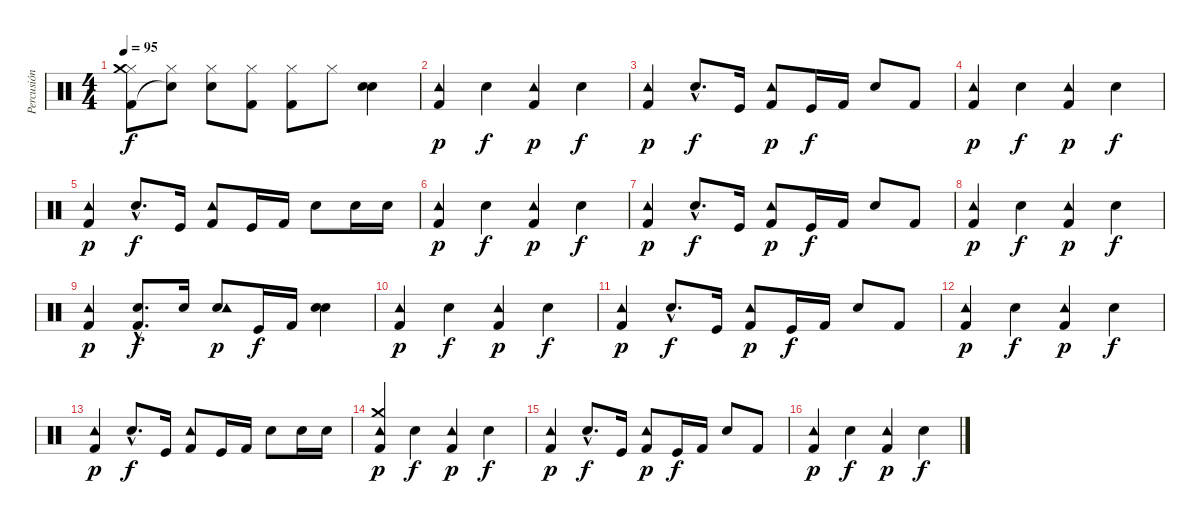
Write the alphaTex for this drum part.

\track ("Percusión" "Percusión") {instrument percussion}
\staff {score}
\articulation defaults
\ts (4 4)
\tempo 95
\clef neutral
\ks c
("Hi-Hat (closed)" "Kick (hit) 2" "Crash medium (hit)").8{dy f} ("Hi-Hat (closed)" "Snare (hit)"{t}).8 ("Hi-Hat (closed)" "Snare (hit) 2").8 ("Hi-Hat (closed)" "Kick (hit) 2").8 ("Hi-Hat (closed)" "Kick (hit) 2").8 "Hi-Hat (closed)".8 ("Snare (hit) 2" "Snare (hit) 2").4{bd 240} |
("Kick (hit) 2" "Tambourine (hit)").4{dy p} "Snare (hit) 2".4{dy f} ("Kick (hit) 2" "Tambourine (hit)").4{dy p} "Snare (hit) 2".4{dy f} |
("Kick (hit) 2" "Tambourine (hit)").4{dy p} "Snare (hit) 2"{hac}.8{d dy f} "Kick (hit)".16{balance 10} ("Kick (hit) 2" "Tambourine (hit)").8{dy p balance 8} "Kick (hit)".16{dy f balance 6} "Kick (hit) 2".16{balance 10} "Snare (hit) 2".8{balance 8} "Kick (hit) 2".8 |
("Kick (hit) 2" "Tambourine (hit)").4{dy p} "Snare (hit) 2".4{dy f} ("Kick (hit) 2" "Tambourine (hit)").4{dy p} "Snare (hit) 2".4{dy f} |
("Kick (hit) 2" "Tambourine (hit)").4{dy p} "Snare (hit) 2"{hac}.8{d dy f} "Kick (hit)".16{balance 10} ("Kick (hit) 2" "Tambourine (hit)").8{balance 8} "Kick (hit)".16{balance 6} "Kick (hit) 2".16{balance 10} "Snare (hit) 2".8{balance 8} "Snare (hit) 2".16 "Snare (hit) 2".16 |
("Kick (hit) 2" "Tambourine (hit)").4{dy p} "Snare (hit) 2".4{dy f} ("Kick (hit) 2" "Tambourine (hit)").4{dy p} "Snare (hit) 2".4{dy f} |
("Kick (hit) 2" "Tambourine (hit)").4{dy p} "Snare (hit) 2"{hac}.8{d dy f} "Kick (hit)".16{balance 10} ("Kick (hit) 2" "Tambourine (hit)").8{dy p balance 8} "Kick (hit)".16{dy f balance 6} "Kick (hit) 2".16{balance 10} "Snare (hit) 2".8{balance 8} "Kick (hit) 2".8 |
("Kick (hit) 2" "Tambourine (hit)").4{dy p} "Snare (hit) 2".4{dy f} ("Kick (hit) 2" "Tambourine (hit)").4{dy p} "Snare (hit) 2".4{dy f} |
("Kick (hit) 2" "Tambourine (hit)").4{dy p} ("Kick (hit) 2"{hac} "Snare (hit) 2"{hac}).8{d dy f} "Snare (hit) 2".16{balance 10} ("Snare (hit) 2" "Tambourine (hit)").8{dy p balance 8} "Kick (hit)".16{dy f balance 6} "Kick (hit) 2".16{balance 10} ("Snare (hit) 2" "Snare (hit) 2").4{bd 240 balance 8} |
("Kick (hit) 2" "Tambourine (hit)").4{dy p} "Snare (hit) 2".4{dy f} ("Kick (hit) 2" "Tambourine (hit)").4{dy p} "Snare (hit) 2".4{dy f} |
("Kick (hit) 2" "Tambourine (hit)").4{dy p} "Snare (hit) 2"{hac}.8{d dy f} "Kick (hit)".16{balance 10} ("Kick (hit) 2" "Tambourine (hit)").8{dy p balance 8} "Kick (hit)".16{dy f balance 6} "Kick (hit) 2".16{balance 10} "Snare (hit) 2".8{balance 8} "Kick (hit) 2".8 |
("Kick (hit) 2" "Tambourine (hit)").4{dy p} "Snare (hit) 2".4{dy f} ("Kick (hit) 2" "Tambourine (hit)").4{dy p} "Snare (hit) 2".4{dy f} |
("Kick (hit) 2" "Tambourine (hit)").4{dy p} "Snare (hit) 2"{hac}.8{d dy f} "Kick (hit)".16{balance 10} ("Kick (hit) 2" "Tambourine (hit)").8{balance 8} "Kick (hit)".16{balance 6} "Kick (hit) 2".16{balance 10} "Snare (hit) 2".8{balance 8} "Snare (hit) 2".16 "Snare (hit) 2".16 |
("Kick (hit) 2" "Tambourine (hit)" "Crash medium (hit)").4{dy p} "Snare (hit) 2".4{dy f} ("Kick (hit) 2" "Tambourine (hit)").4{dy p} "Snare (hit) 2".4{dy f} |
("Kick (hit) 2" "Tambourine (hit)").4{dy p} "Snare (hit) 2"{hac}.8{d dy f} "Kick (hit)".16{balance 10} ("Kick (hit) 2" "Tambourine (hit)").8{dy p balance 8} "Kick (hit)".16{dy f balance 6} "Kick (hit) 2".16{balance 10} "Snare (hit) 2".8{balance 8} "Kick (hit) 2".8 |
("Kick (hit) 2" "Tambourine (hit)").4{dy p} "Snare (hit) 2".4{dy f} ("Kick (hit) 2" "Tambourine (hit)").4{dy p} "Snare (hit) 2".4{dy f}
